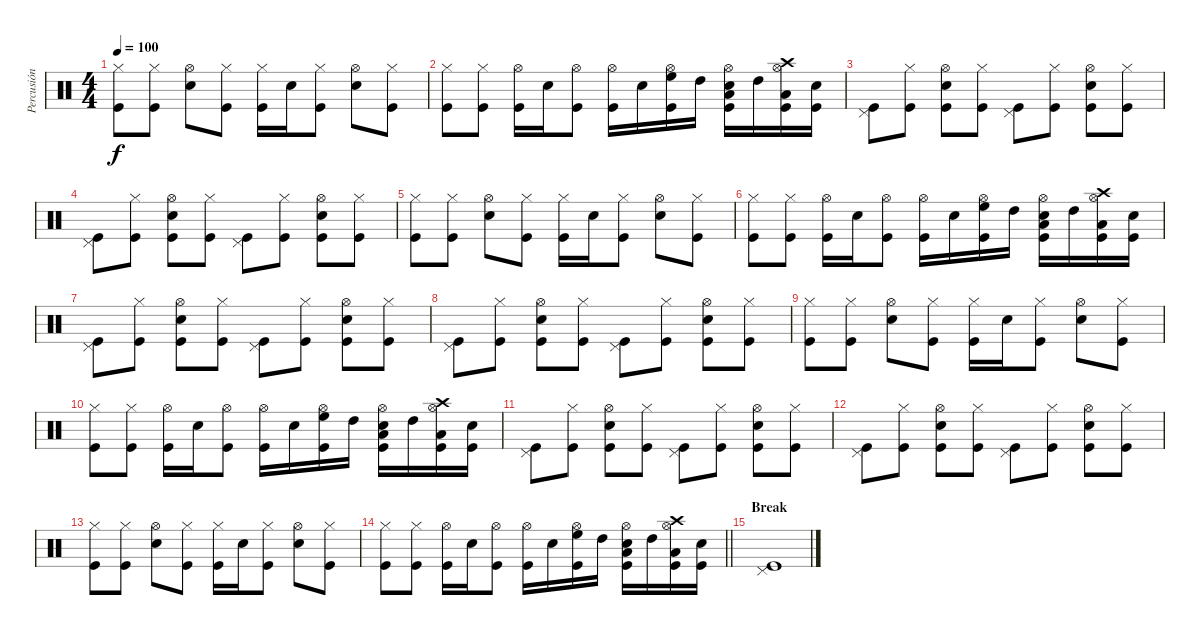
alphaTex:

\track ("Percusión" "Percusión") {instrument percussion}
\staff {score}
\articulation defaults
\ts (4 4)
\tempo 100
\clef neutral
\ks c
("Kick (hit)" "Hi-Hat (closed)").8{dy f} ("Kick (hit)" "Hi-Hat (closed)").8 ("Snare (hit) 2" "Hi-Hat (open)").8 ("Kick (hit)" "Hi-Hat (closed)").8 ("Kick (hit)" "Hi-Hat (closed)").16 "Snare (hit) 2".16 ("Kick (hit)" "Hi-Hat (closed)").8 ("Snare (hit) 2" "Hi-Hat (open)").8 ("Kick (hit)" "Hi-Hat (closed)").8 |
("Kick (hit)" "Hi-Hat (closed)").8 ("Kick (hit)" "Hi-Hat (closed)").8 ("Kick (hit)" "Hi-Hat (open)").16 "Snare (hit) 2".16 ("Kick (hit)" "Hi-Hat (open)").8 ("Kick (hit)" "Hi-Hat (open)").16 "Snare (hit) 2".16 ("High Floor Tom (hit)" "Kick (hit)" "Hi-Hat (open)").16 "High Tom (hit)".16 ("Snare (hit) 2" "Low Tom (hit)" "Kick (hit)" "Hi-Hat (open)").16 "High Tom (hit)".16 ("Crash high (hit)" "Low Tom (hit)" "Kick (hit)" "Hi-Hat (open)").16 ("Snare (hit) 2" "Kick (hit)").16 |
("Kick (hit)" "Pedal Hi-Hat (hit)").8 ("Kick (hit)" "Hi-Hat (closed)").8 ("Snare (hit) 2" "Kick (hit)" "Hi-Hat (open)").8 ("Kick (hit)" "Hi-Hat (closed)").8 ("Kick (hit)" "Pedal Hi-Hat (hit)").8 ("Kick (hit)" "Hi-Hat (closed)").8 ("Snare (hit) 2" "Kick (hit)" "Hi-Hat (open)").8 ("Kick (hit)" "Hi-Hat (closed)").8 |
("Kick (hit)" "Pedal Hi-Hat (hit)").8 ("Kick (hit)" "Hi-Hat (closed)").8 ("Snare (hit) 2" "Kick (hit)" "Hi-Hat (open)").8 ("Kick (hit)" "Hi-Hat (closed)").8 ("Kick (hit)" "Pedal Hi-Hat (hit)").8 ("Kick (hit)" "Hi-Hat (closed)").8 ("Snare (hit) 2" "Kick (hit)" "Hi-Hat (open)").8 ("Kick (hit)" "Hi-Hat (closed)").8 |
("Kick (hit)" "Hi-Hat (closed)").8 ("Kick (hit)" "Hi-Hat (closed)").8 ("Snare (hit) 2" "Hi-Hat (open)").8 ("Kick (hit)" "Hi-Hat (closed)").8 ("Kick (hit)" "Hi-Hat (closed)").16 "Snare (hit) 2".16 ("Kick (hit)" "Hi-Hat (closed)").8 ("Snare (hit) 2" "Hi-Hat (open)").8 ("Kick (hit)" "Hi-Hat (closed)").8 |
("Kick (hit)" "Hi-Hat (closed)").8 ("Kick (hit)" "Hi-Hat (closed)").8 ("Kick (hit)" "Hi-Hat (open)").16 "Snare (hit) 2".16 ("Kick (hit)" "Hi-Hat (open)").8 ("Kick (hit)" "Hi-Hat (open)").16 "Snare (hit) 2".16 ("High Floor Tom (hit)" "Kick (hit)" "Hi-Hat (open)").16 "High Tom (hit)".16 ("Snare (hit) 2" "Low Tom (hit)" "Kick (hit)" "Hi-Hat (open)").16 "High Tom (hit)".16 ("Crash high (hit)" "Low Tom (hit)" "Kick (hit)" "Hi-Hat (open)").16 ("Snare (hit) 2" "Kick (hit)").16 |
("Kick (hit)" "Pedal Hi-Hat (hit)").8 ("Kick (hit)" "Hi-Hat (closed)").8 ("Snare (hit) 2" "Kick (hit)" "Hi-Hat (open)").8 ("Kick (hit)" "Hi-Hat (closed)").8 ("Kick (hit)" "Pedal Hi-Hat (hit)").8 ("Kick (hit)" "Hi-Hat (closed)").8 ("Snare (hit) 2" "Kick (hit)" "Hi-Hat (open)").8 ("Kick (hit)" "Hi-Hat (closed)").8 |
("Kick (hit)" "Pedal Hi-Hat (hit)").8 ("Kick (hit)" "Hi-Hat (closed)").8 ("Snare (hit) 2" "Kick (hit)" "Hi-Hat (open)").8 ("Kick (hit)" "Hi-Hat (closed)").8 ("Kick (hit)" "Pedal Hi-Hat (hit)").8 ("Kick (hit)" "Hi-Hat (closed)").8 ("Snare (hit) 2" "Kick (hit)" "Hi-Hat (open)").8 ("Kick (hit)" "Hi-Hat (closed)").8 |
("Kick (hit)" "Hi-Hat (closed)").8 ("Kick (hit)" "Hi-Hat (closed)").8 ("Snare (hit) 2" "Hi-Hat (open)").8 ("Kick (hit)" "Hi-Hat (closed)").8 ("Kick (hit)" "Hi-Hat (closed)").16 "Snare (hit) 2".16 ("Kick (hit)" "Hi-Hat (closed)").8 ("Snare (hit) 2" "Hi-Hat (open)").8 ("Kick (hit)" "Hi-Hat (closed)").8 |
("Kick (hit)" "Hi-Hat (closed)").8 ("Kick (hit)" "Hi-Hat (closed)").8 ("Kick (hit)" "Hi-Hat (open)").16 "Snare (hit) 2".16 ("Kick (hit)" "Hi-Hat (open)").8 ("Kick (hit)" "Hi-Hat (open)").16 "Snare (hit) 2".16 ("High Floor Tom (hit)" "Kick (hit)" "Hi-Hat (open)").16 "High Tom (hit)".16 ("Snare (hit) 2" "Low Tom (hit)" "Kick (hit)" "Hi-Hat (open)").16 "High Tom (hit)".16 ("Crash high (hit)" "Low Tom (hit)" "Kick (hit)" "Hi-Hat (open)").16 ("Snare (hit) 2" "Kick (hit)").16 |
("Kick (hit)" "Pedal Hi-Hat (hit)").8 ("Kick (hit)" "Hi-Hat (closed)").8 ("Snare (hit) 2" "Kick (hit)" "Hi-Hat (open)").8 ("Kick (hit)" "Hi-Hat (closed)").8 ("Kick (hit)" "Pedal Hi-Hat (hit)").8 ("Kick (hit)" "Hi-Hat (closed)").8 ("Snare (hit) 2" "Kick (hit)" "Hi-Hat (open)").8 ("Kick (hit)" "Hi-Hat (closed)").8 |
("Kick (hit)" "Pedal Hi-Hat (hit)").8 ("Kick (hit)" "Hi-Hat (closed)").8 ("Snare (hit) 2" "Kick (hit)" "Hi-Hat (open)").8 ("Kick (hit)" "Hi-Hat (closed)").8 ("Kick (hit)" "Pedal Hi-Hat (hit)").8 ("Kick (hit)" "Hi-Hat (closed)").8 ("Snare (hit) 2" "Kick (hit)" "Hi-Hat (open)").8 ("Kick (hit)" "Hi-Hat (closed)").8 |
("Kick (hit)" "Hi-Hat (closed)").8 ("Kick (hit)" "Hi-Hat (closed)").8 ("Snare (hit) 2" "Hi-Hat (open)").8 ("Kick (hit)" "Hi-Hat (closed)").8 ("Kick (hit)" "Hi-Hat (closed)").16 "Snare (hit) 2".16 ("Kick (hit)" "Hi-Hat (closed)").8 ("Snare (hit) 2" "Hi-Hat (open)").8 ("Kick (hit)" "Hi-Hat (closed)").8 |
\barLineRight lightlight
("Kick (hit)" "Hi-Hat (closed)").8 ("Kick (hit)" "Hi-Hat (closed)").8 ("Kick (hit)" "Hi-Hat (open)").16 "Snare (hit) 2".16 ("Kick (hit)" "Hi-Hat (open)").8 ("Kick (hit)" "Hi-Hat (open)").16 "Snare (hit) 2".16 ("High Floor Tom (hit)" "Kick (hit)" "Hi-Hat (open)").16 "High Tom (hit)".16 ("Snare (hit) 2" "Low Tom (hit)" "Kick (hit)" "Hi-Hat (open)").16 "High Tom (hit)".16 ("Crash high (hit)" "Low Tom (hit)" "Kick (hit)" "Hi-Hat (open)").16 ("Snare (hit) 2" "Kick (hit)").16 |
\section ("" "Break")
("Kick (hit)" "Pedal Hi-Hat (hit)").1
